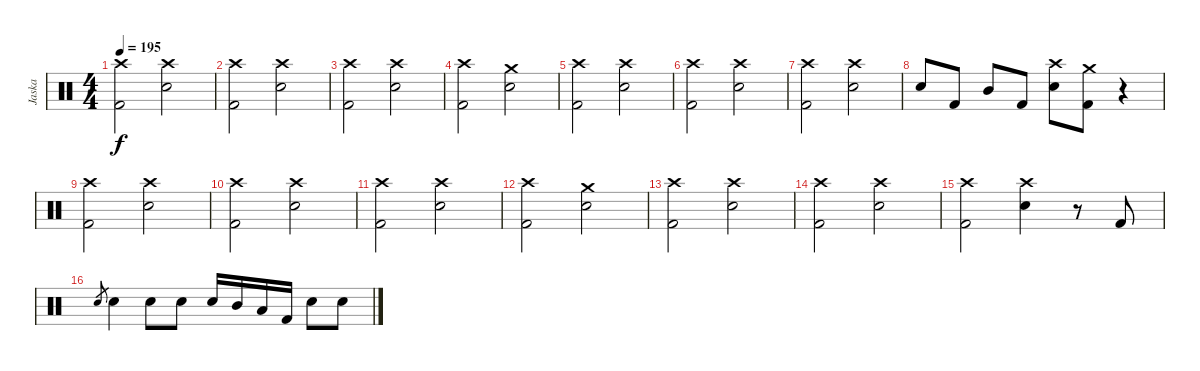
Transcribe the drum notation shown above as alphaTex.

\track ("Jaska" "Jaska") {instrument percussion}
\staff {score}
\articulation defaults
\ts (4 4)
\tempo 195
\clef neutral
\ks c
("Crash high (hit)" "Kick (hit) 2").2{dy f} ("Crash high (hit)" "Electric Snare (hit)").2 |
("Crash high (hit)" "Kick (hit) 2").2 ("Crash high (hit)" "Electric Snare (hit)").2 |
("Crash high (hit)" "Kick (hit) 2").2 ("Crash high (hit)" "Electric Snare (hit)").2 |
("Crash high (hit)" "Kick (hit) 2").2 ("Crash medium (hit)" "Electric Snare (hit)").2 |
("Crash high (hit)" "Kick (hit) 2").2 ("Crash high (hit)" "Electric Snare (hit)").2 |
("Crash high (hit)" "Kick (hit) 2").2 ("Crash high (hit)" "Electric Snare (hit)").2 |
("Crash high (hit)" "Kick (hit) 2").2 ("Crash high (hit)" "Electric Snare (hit)").2 |
"Electric Snare (hit)".8 "Kick (hit) 2".8 "Mid Tom (hit)".8 "Kick (hit) 2".8 ("Crash high (hit)" "Electric Snare (hit)").8 ("Crash medium (hit)" "Kick (hit) 2").8 r.4 |
("Crash high (hit)" "Kick (hit) 2").2 ("Crash high (hit)" "Electric Snare (hit)").2 |
("Crash high (hit)" "Kick (hit) 2").2 ("Crash high (hit)" "Electric Snare (hit)").2 |
("Crash high (hit)" "Kick (hit) 2").2 ("Crash high (hit)" "Electric Snare (hit)").2 |
("Crash high (hit)" "Kick (hit) 2").2 ("Crash medium (hit)" "Electric Snare (hit)").2 |
("Crash high (hit)" "Kick (hit) 2").2 ("Crash high (hit)" "Electric Snare (hit)").2 |
("Crash high (hit)" "Kick (hit) 2").2 ("Crash high (hit)" "Electric Snare (hit)").2 |
("Crash high (hit)" "Kick (hit) 2").2 ("Crash high (hit)" "Electric Snare (hit)").4 r.8 "Kick (hit) 2".8 |
"Electric Snare (hit)".8{gr} "Electric Snare (hit)".4 "Electric Snare (hit)".8 "Electric Snare (hit)".8 "Electric Snare (hit)".16 "Mid Tom (hit)".16 "Low Tom (hit)".16 "Kick (hit) 2".16 "Electric Snare (hit)".8 "Electric Snare (hit)".8
